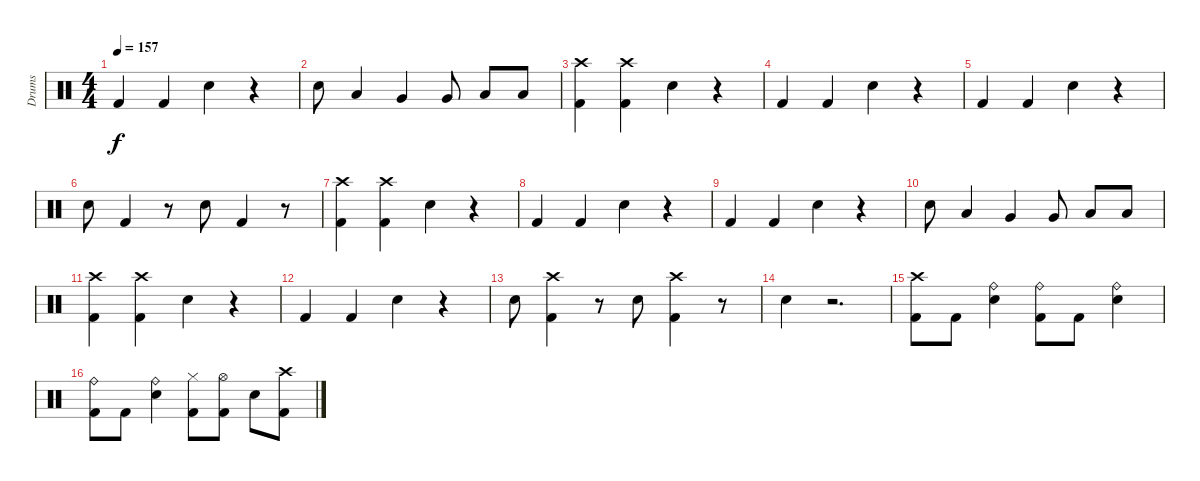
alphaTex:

\track ("Drums" "Drums") {instrument percussion}
\staff {score}
\articulation defaults
\ts (4 4)
\tempo 157
\clef neutral
\ks c "Kick (hit) 2".4{dy f} "Kick (hit) 2".4 "Snare (hit) 2".4
r.4 |
"Snare (hit) 2".8 "Low Tom (hit)".4 "Very Low Tom (hit)".4 "Very Low Tom (hit)".8 "Low Floor Tom (hit)".8 "Low Floor Tom (hit)".8 |
("Crash high (hit)" "Kick (hit) 2").4 ("Crash high (hit)" "Kick (hit) 2").4 "Snare (hit) 2".4 r.4 |
"Kick (hit) 2".4 "Kick (hit) 2".4 "Snare (hit) 2".4 r.4 |
"Kick (hit) 2".4 "Kick (hit) 2".4 "Snare (hit) 2".4 r.4 |
"Snare (hit) 2".8 "Kick (hit) 2".4 r.8 "Snare (hit) 2".8 "Kick (hit) 2".4 r.8 |
("Crash high (hit)" "Kick (hit) 2").4 ("Crash high (hit)" "Kick (hit) 2").4 "Snare (hit) 2".4 r.4 |
"Kick (hit) 2".4 "Kick (hit) 2".4 "Snare (hit) 2".4 r.4 |
"Kick (hit) 2".4 "Kick (hit) 2".4 "Snare (hit) 2".4 r.4 |
"Snare (hit) 2".8 "Low Tom (hit)".4 "Very Low Tom (hit)".4 "Very Low Tom (hit)".8 "Low Floor Tom (hit)".8 "Low Floor Tom (hit)".8 |
("Crash high (hit)" "Kick (hit) 2").4 ("Crash high (hit)" "Kick (hit) 2").4 "Snare (hit) 2".4 r.4 |
"Kick (hit) 2".4 "Kick (hit) 2".4 "Snare (hit) 2".4 r.4 |
"Snare (hit) 2".8 ("Crash high (hit)" "Kick (hit) 2").4 r.8 "Snare (hit) 2".8 ("Crash high (hit)" "Kick (hit) 2").4 r.8 |
"Snare (hit) 2".4 r.2{d} |
("Crash high (hit)" "Kick (hit) 2").8 "Kick (hit) 2".8 ("Ride (bell)" "Snare (hit) 2").4 ("Ride (bell)" "Kick (hit) 2").8 "Kick (hit) 2".8 ("Ride (bell)" "Snare (hit) 2").4 |
("Ride (bell)" "Kick (hit) 2").8 "Kick (hit) 2".8 ("Ride (bell)" "Snare (hit) 2").4 ("Hi-Hat (closed)" "Kick (hit) 2").8 ("Hi-Hat (open)" "Kick (hit) 2").8 "Snare (hit) 2".8 ("Crash high (hit)" "Kick (hit) 2").8
